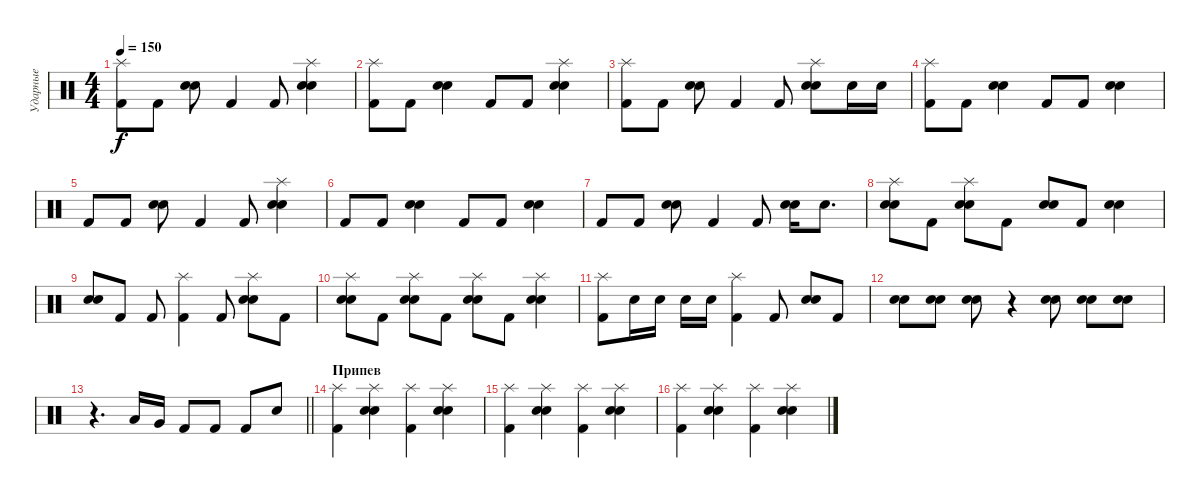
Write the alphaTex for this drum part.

\track ("Ударные" "Ударные") {instrument percussion}
\staff {score}
\articulation defaults
\ts (4 4)
\tempo 150
\clef neutral
\ks c
("Splash (hit)" "Kick (hit) 2").8{dy f} "Kick (hit) 2".8 ("Electric Snare (hit)" "Snare (hit) 2").8 "Kick (hit) 2".4 "Kick (hit) 2".8 ("Splash (hit)" "Electric Snare (hit)" "Snare (hit) 2").4 |
("Splash (hit)" "Kick (hit) 2").8 "Kick (hit) 2".8 ("Electric Snare (hit)" "Snare (hit) 2").4 "Kick (hit) 2".8 "Kick (hit) 2".8 ("Splash (hit)" "Electric Snare (hit)" "Snare (hit) 2").4 |
("Splash (hit)" "Kick (hit) 2").8 "Kick (hit) 2".8 ("Electric Snare (hit)" "Snare (hit) 2").8 "Kick (hit) 2".4 "Kick (hit) 2".8 ("Splash (hit)" "Electric Snare (hit)" "Snare (hit) 2").8 "Electric Snare (hit)".16 "Electric Snare (hit)".16 |
("Splash (hit)" "Kick (hit) 2").8 "Kick (hit) 2".8 ("Electric Snare (hit)" "Snare (hit) 2").4 "Kick (hit) 2".8 "Kick (hit) 2".8 ("Electric Snare (hit)" "Snare (hit) 2").4 |
"Kick (hit) 2".8 "Kick (hit) 2".8 ("Electric Snare (hit)" "Snare (hit) 2").8 "Kick (hit) 2".4 "Kick (hit) 2".8 ("Splash (hit)" "Electric Snare (hit)" "Snare (hit) 2").4 |
"Kick (hit) 2".8 "Kick (hit) 2".8 ("Electric Snare (hit)" "Snare (hit) 2").4 "Kick (hit) 2".8 "Kick (hit) 2".8 ("Electric Snare (hit)" "Snare (hit) 2").4 |
"Kick (hit) 2".8 "Kick (hit) 2".8 ("Electric Snare (hit)" "Snare (hit) 2").8 "Kick (hit) 2".4 "Kick (hit) 2".8 ("Electric Snare (hit)" "Snare (hit) 2").16 "Electric Snare (hit)".8{d} |
("Splash (hit)" "Electric Snare (hit)" "Snare (hit) 2").8 "Kick (hit) 2".8 ("Splash (hit)" "Electric Snare (hit)" "Snare (hit) 2").8 "Kick (hit) 2".8 ("Electric Snare (hit)" "Snare (hit) 2").8 "Kick (hit) 2".8 ("Electric Snare (hit)" "Snare (hit) 2").4 |
("Electric Snare (hit)" "Snare (hit) 2").8 "Kick (hit) 2".8 "Kick (hit) 2".8 ("Splash (hit)" "Kick (hit) 2").4 "Kick (hit) 2".8 ("Splash (hit)" "Electric Snare (hit)" "Snare (hit) 2").8 "Kick (hit) 2".8 |
("Splash (hit)" "Electric Snare (hit)" "Snare (hit) 2").8 "Kick (hit) 2".8 ("Splash (hit)" "Electric Snare (hit)" "Snare (hit) 2").8 "Kick (hit) 2".8 ("Splash (hit)" "Electric Snare (hit)" "Snare (hit) 2").8 "Kick (hit) 2".8 ("Splash (hit)" "Electric Snare (hit)" "Snare (hit) 2").4 |
("Splash (hit)" "Kick (hit) 2").8 "Electric Snare (hit)".16 "Electric Snare (hit)".16 "Electric Snare (hit)".16 "Electric Snare (hit)".16 ("Splash (hit)" "Kick (hit) 2").4 "Kick (hit) 2".8 ("Electric Snare (hit)" "Snare (hit) 2").8 "Kick (hit) 2".8 |
("Electric Snare (hit)" "Snare (hit) 2").8 ("Electric Snare (hit)" "Snare (hit) 2").8 ("Electric Snare (hit)" "Snare (hit) 2").8 r.4 ("Electric Snare (hit)" "Snare (hit) 2").8 ("Electric Snare (hit)" "Snare (hit) 2").8 ("Electric Snare (hit)" "Snare (hit) 2").8 |
\barLineRight lightlight
r.4{d} "Low Tom (hit)".16 "Very Low Tom (hit)".16 "Kick (hit) 2".8 "Kick (hit) 2".8 "Kick (hit) 2".8 "Electric Snare (hit)".8 |
\section ("" "Припев")
("Splash (hit)" "Kick (hit) 2").4 ("Splash (hit)" "Electric Snare (hit)" "Snare (hit) 2").4 ("Splash (hit)" "Kick (hit) 2").4 ("Splash (hit)" "Electric Snare (hit)" "Snare (hit) 2").4 |
("Splash (hit)" "Kick (hit) 2").4 ("Splash (hit)" "Electric Snare (hit)" "Snare (hit) 2").4 ("Splash (hit)" "Kick (hit) 2").4 ("Splash (hit)" "Electric Snare (hit)" "Snare (hit) 2").4 |
("Splash (hit)" "Kick (hit) 2").4 ("Splash (hit)" "Electric Snare (hit)" "Snare (hit) 2").4 ("Splash (hit)" "Kick (hit) 2").4 ("Splash (hit)" "Electric Snare (hit)" "Snare (hit) 2").4
